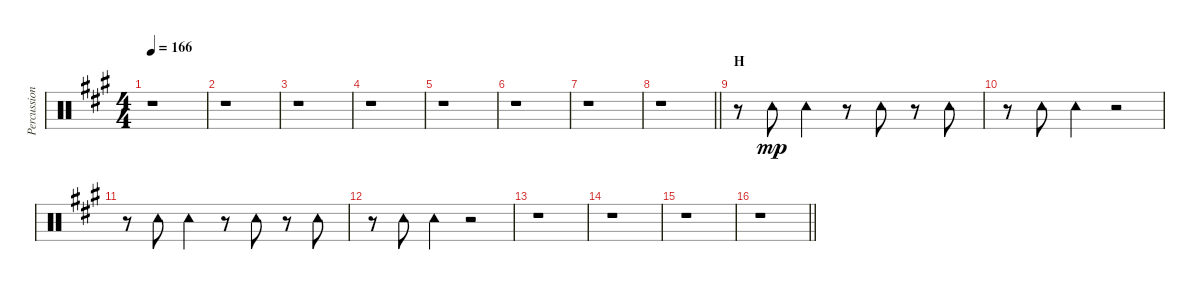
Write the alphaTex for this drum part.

\track ("Percussion I" "Percussion") {instrument percussion}
\staff {score}
\articulation defaults
\ts (4 4)
\tempo 166
\clef neutral
\ks a
r.1{dy f} |
r.1 |
r.1 |
r.1 |
r.1 |
r.1 |
r.1 |
\barLineRight lightlight
r.1 |
\section ("" "H")
r.8 "Tambourine (hit)".8{dy mp} "Tambourine (hit)".4 r.8 "Tambourine (hit)".8 r.8 "Tambourine (hit)".8 |
r.8 "Tambourine (hit)".8 "Tambourine (hit)".4 r.2 |
r.8 "Tambourine (hit)".8 "Tambourine (hit)".4 r.8 "Tambourine (hit)".8 r.8 "Tambourine (hit)".8 |
r.8 "Tambourine (hit)".8 "Tambourine (hit)".4 r.2 |
r.1 |
r.1 |
r.1 |
\barLineRight lightlight
r.1
